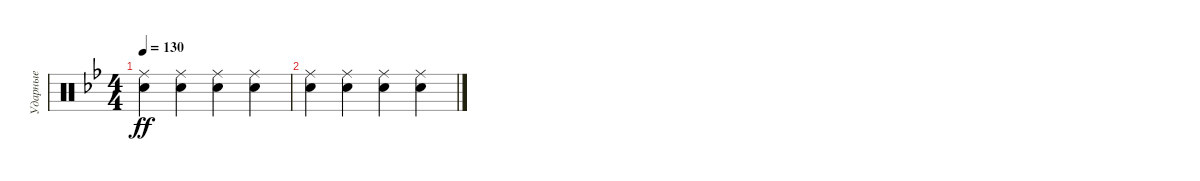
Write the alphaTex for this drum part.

\track ("Ударные" "Ударные") {instrument percussion}
\staff {score}
\articulation defaults
\ts (4 4)
\tempo 130
\clef neutral
\ks gminor
("Ride (middle)" "Snare (hit) 2").4{dy ff} ("Ride (middle)" "Snare (hit) 2").4 ("Ride (middle)" "Snare (hit) 2").4 ("Ride (middle)" "Snare (hit) 2").4 |
("Ride (middle)" "Snare (hit) 2").4 ("Ride (middle)" "Snare (hit) 2").4 ("Ride (middle)" "Snare (hit) 2").4 ("Ride (middle)" "Snare (hit) 2").4
